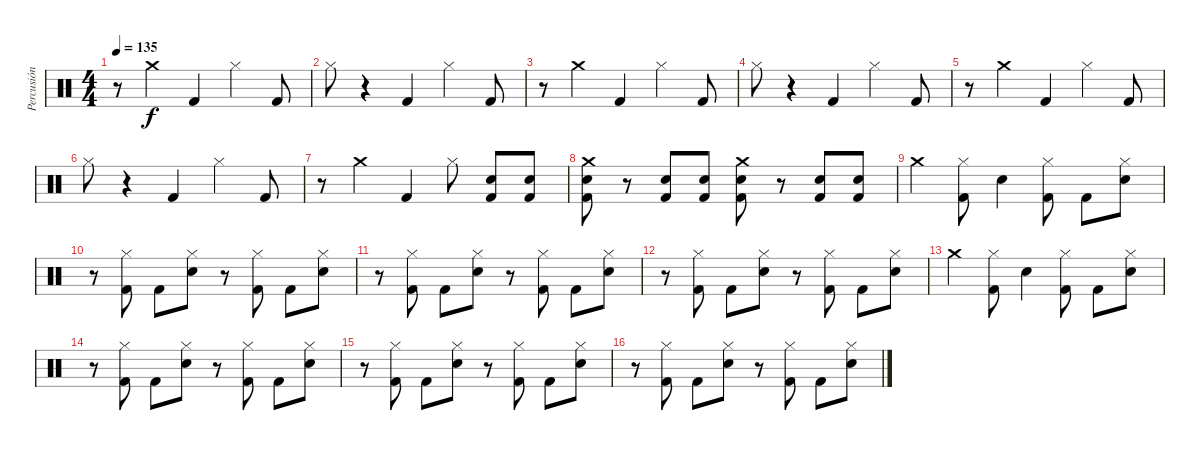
\track ("Percusión" "Percusión") {instrument percussion}
\staff {score}
\articulation defaults
\ts (4 4)
\tempo 135
\clef neutral
\ks c
r.8{dy f} "Crash medium (hit)".4 "Kick (hit) 2".4 "Hi-Hat (closed)".4 "Kick (hit) 2".8 |
"Hi-Hat (closed)".8 r.4 "Kick (hit) 2".4 "Hi-Hat (closed)".4 "Kick (hit) 2".8 |
r.8 "Crash medium (hit)".4 "Kick (hit) 2".4 "Hi-Hat (closed)".4 "Kick (hit) 2".8 |
"Hi-Hat (closed)".8 r.4 "Kick (hit) 2".4 "Hi-Hat (closed)".4 "Kick (hit) 2".8 |
r.8 "Crash medium (hit)".4 "Kick (hit) 2".4 "Hi-Hat (closed)".4 "Kick (hit) 2".8 |
"Hi-Hat (closed)".8 r.4 "Kick (hit) 2".4 "Hi-Hat (closed)".4 "Kick (hit) 2".8 |
r.8 "Crash medium (hit)".4 "Kick (hit) 2".4 "Hi-Hat (closed)".8 ("Snare (hit) 2" "Kick (hit) 2").8 ("Snare (hit) 2" "Kick (hit) 2").8 |
("Crash medium (hit)" "Snare (hit) 2" "Kick (hit) 2").8 r.8 ("Snare (hit) 2" "Kick (hit) 2").8 ("Snare (hit) 2" "Kick (hit) 2").8 ("Crash medium (hit)" "Snare (hit) 2" "Kick (hit) 2").8 r.8 ("Snare (hit) 2" "Kick (hit) 2").8 ("Snare (hit) 2" "Kick (hit) 2").8 |
"Crash medium (hit)".4 ("Hi-Hat (closed)" "Kick (hit) 2").8 "Snare (hit) 2".4 ("Hi-Hat (closed)" "Kick (hit) 2").8 "Kick (hit) 2".8 ("Snare (hit) 2" "Hi-Hat (closed)").8 |
r.8 ("Hi-Hat (closed)" "Kick (hit) 2").8 "Kick (hit) 2".8 ("Snare (hit) 2" "Hi-Hat (closed)").8 r.8 ("Hi-Hat (closed)" "Kick (hit) 2").8 "Kick (hit) 2".8 ("Snare (hit) 2" "Hi-Hat (closed)").8 |
r.8 ("Hi-Hat (closed)" "Kick (hit) 2").8 "Kick (hit) 2".8 ("Snare (hit) 2" "Hi-Hat (closed)").8 r.8 ("Hi-Hat (closed)" "Kick (hit) 2").8 "Kick (hit) 2".8 ("Snare (hit) 2" "Hi-Hat (closed)").8 |
r.8 ("Hi-Hat (closed)" "Kick (hit) 2").8 "Kick (hit) 2".8 ("Snare (hit) 2" "Hi-Hat (closed)").8 r.8 ("Hi-Hat (closed)" "Kick (hit) 2").8 "Kick (hit) 2".8 ("Snare (hit) 2" "Hi-Hat (closed)").8 |
"Crash medium (hit)".4 ("Hi-Hat (closed)" "Kick (hit) 2").8 "Snare (hit) 2".4 ("Hi-Hat (closed)" "Kick (hit) 2").8 "Kick (hit) 2".8 ("Snare (hit) 2" "Hi-Hat (closed)").8 |
r.8 ("Hi-Hat (closed)" "Kick (hit) 2").8 "Kick (hit) 2".8 ("Snare (hit) 2" "Hi-Hat (closed)").8 r.8 ("Hi-Hat (closed)" "Kick (hit) 2").8 "Kick (hit) 2".8 ("Snare (hit) 2" "Hi-Hat (closed)").8 |
r.8 ("Hi-Hat (closed)" "Kick (hit) 2").8 "Kick (hit) 2".8 ("Snare (hit) 2" "Hi-Hat (closed)").8 r.8 ("Hi-Hat (closed)" "Kick (hit) 2").8 "Kick (hit) 2".8 ("Snare (hit) 2" "Hi-Hat (closed)").8 |
r.8 ("Hi-Hat (closed)" "Kick (hit) 2").8 "Kick (hit) 2".8 ("Snare (hit) 2" "Hi-Hat (closed)").8 r.8 ("Hi-Hat (closed)" "Kick (hit) 2").8 "Kick (hit) 2".8 ("Snare (hit) 2" "Hi-Hat (closed)").8
